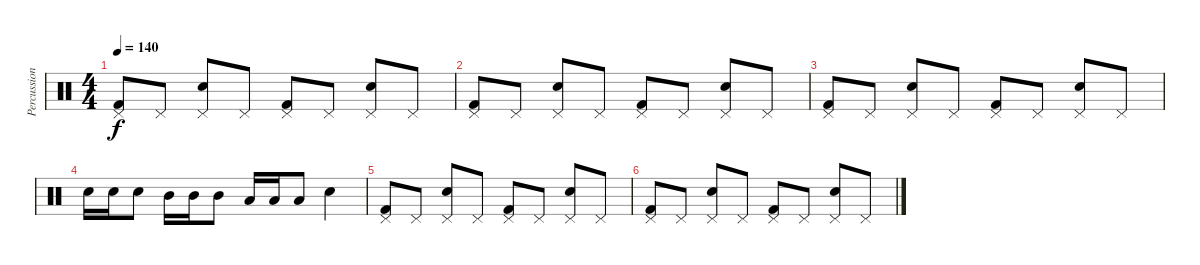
\track ("Percussion" "Percussion") {instrument percussion}
\staff {score}
\articulation defaults
\ts (4 4)
\tempo 140
\clef neutral
\ks c
("Kick (hit) 2" "Pedal Hi-Hat (hit)").8{dy f} "Pedal Hi-Hat (hit)".8 ("Electric Snare (hit)" "Pedal Hi-Hat (hit)").8 "Pedal Hi-Hat (hit)".8 ("Kick (hit) 2" "Pedal Hi-Hat (hit)").8 "Pedal Hi-Hat (hit)".8 ("Electric Snare (hit)" "Pedal Hi-Hat (hit)").8 "Pedal Hi-Hat (hit)".8 |
("Kick (hit) 2" "Pedal Hi-Hat (hit)").8 "Pedal Hi-Hat (hit)".8 ("Electric Snare (hit)" "Pedal Hi-Hat (hit)").8 "Pedal Hi-Hat (hit)".8 ("Kick (hit) 2" "Pedal Hi-Hat (hit)").8 "Pedal Hi-Hat (hit)".8 ("Electric Snare (hit)" "Pedal Hi-Hat (hit)").8 "Pedal Hi-Hat (hit)".8 |
("Kick (hit) 2" "Pedal Hi-Hat (hit)").8 "Pedal Hi-Hat (hit)".8 ("Electric Snare (hit)" "Pedal Hi-Hat (hit)").8 "Pedal Hi-Hat (hit)".8 ("Kick (hit) 2" "Pedal Hi-Hat (hit)").8 "Pedal Hi-Hat (hit)".8 ("Electric Snare (hit)" "Pedal Hi-Hat (hit)").8 "Pedal Hi-Hat (hit)".8 |
"Electric Snare (hit)".16 "Electric Snare (hit)".16 "Electric Snare (hit)".8 "Mid Tom (hit)".16 "Mid Tom (hit)".16 "Mid Tom (hit)".8 "Low Tom (hit)".16 "Low Tom (hit)".16 "Low Tom (hit)".8 "Electric Snare (hit)".4 |
("Kick (hit) 2" "Pedal Hi-Hat (hit)").8 "Pedal Hi-Hat (hit)".8 ("Electric Snare (hit)" "Pedal Hi-Hat (hit)").8 "Pedal Hi-Hat (hit)".8 ("Kick (hit) 2" "Pedal Hi-Hat (hit)").8 "Pedal Hi-Hat (hit)".8 ("Electric Snare (hit)" "Pedal Hi-Hat (hit)").8 "Pedal Hi-Hat (hit)".8 |
("Kick (hit) 2" "Pedal Hi-Hat (hit)").8 "Pedal Hi-Hat (hit)".8 ("Electric Snare (hit)" "Pedal Hi-Hat (hit)").8 "Pedal Hi-Hat (hit)".8 ("Kick (hit) 2" "Pedal Hi-Hat (hit)").8 "Pedal Hi-Hat (hit)".8 ("Electric Snare (hit)" "Pedal Hi-Hat (hit)").8 "Pedal Hi-Hat (hit)".8
